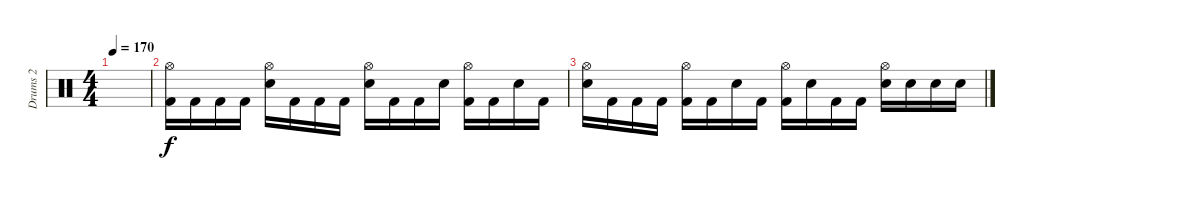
\track ("Drums 2" "Drums 2") {instrument percussion}
\staff {score}
\articulation defaults
\ts (4 4)
\tempo 170
\clef neutral
\ks c
|
("Hi-Hat (open)" "Kick (hit) 2").16 "Kick (hit) 2".16 "Kick (hit) 2".16 "Kick (hit) 2".16 ("Hi-Hat (open)" "Electric Snare (hit)").16 "Kick (hit) 2".16 "Kick (hit) 2".16 "Kick (hit) 2".16 ("Hi-Hat (open)" "Electric Snare (hit)").16 "Kick (hit) 2".16 "Kick (hit) 2".16 "Electric Snare (hit)".16 ("Hi-Hat (open)" "Kick (hit) 2").16 "Kick (hit) 2".16 "Electric Snare (hit)".16 "Kick (hit) 2".16 |
("Hi-Hat (open)" "Electric Snare (hit)").16 "Kick (hit) 2".16 "Kick (hit) 2".16 "Kick (hit) 2".16 ("Hi-Hat (open)" "Kick (hit) 2").16 "Kick (hit) 2".16 "Electric Snare (hit)".16 "Kick (hit) 2".16 ("Hi-Hat (open)" "Kick (hit) 2").16 "Electric Snare (hit)".16 "Kick (hit) 2".16 "Kick (hit) 2".16 ("Hi-Hat (open)" "Electric Snare (hit)").16 "Electric Snare (hit)".16 "Electric Snare (hit)".16 "Electric Snare (hit)".16
